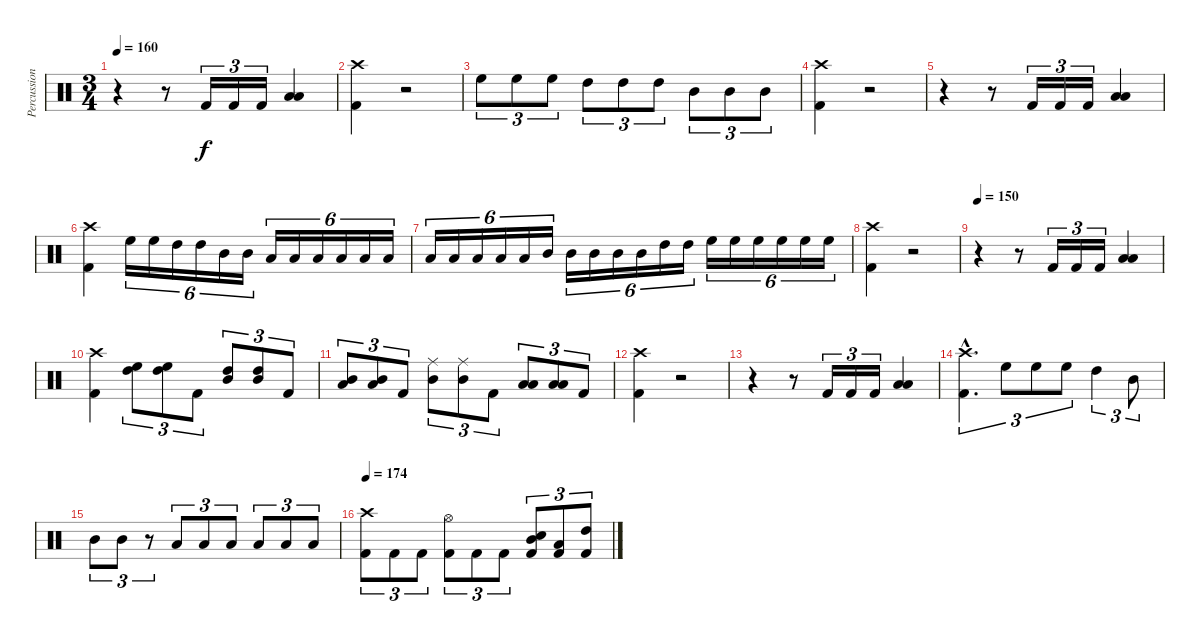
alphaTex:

\track ("Percussion" "Percussion") {instrument percussion}
\staff {score}
\articulation defaults
\ts (3 4)
\tempo 160
\clef neutral
\ks c
r.4{dy f} r.8 "Kick (hit) 2".16{tu (3 2)} "Kick (hit) 2".16{tu (3 2)} "Kick (hit) 2".16{tu (3 2)} ("Low Tom (hit)" "Low Floor Tom (hit)").4 |
("Crash high (hit)" "Kick (hit) 2").4 r.2 |
"High Floor Tom (hit)".8{tu (3 2)} "High Floor Tom (hit)".8{tu (3 2)} "High Floor Tom (hit)".8{tu (3 2)} "High Tom (hit)".8{tu (3 2)} "High Tom (hit)".8{tu (3 2)} "High Tom (hit)".8{tu (3 2)} "Mid Tom (hit)".8{tu (3 2)} "Mid Tom (hit)".8{tu (3 2)} "Mid Tom (hit)".8{tu (3 2)} |
("Crash high (hit)" "Kick (hit) 2").4 r.2 |
r.4 r.8 "Kick (hit) 2".16{tu (3 2)} "Kick (hit) 2".16{tu (3 2)} "Kick (hit) 2".16{tu (3 2)} ("Low Tom (hit)" "Low Floor Tom (hit)").4 |
("Crash high (hit)" "Kick (hit) 2").4 "High Floor Tom (hit)".16{tu (6 4)} "High Floor Tom (hit)".16{tu (6 4)} "High Tom (hit)".16{tu (6 4)} "High Tom (hit)".16{tu (6 4)} "Mid Tom (hit)".16{tu (6 4)} "Mid Tom (hit)".16{tu (6 4)} "Low Tom (hit)".16{tu (6 4)} "Low Tom (hit)".16{tu (6 4)} "Low Floor Tom (hit)".16{tu (6 4)} "Low Floor Tom (hit)".16{tu (6 4)} "Low Floor Tom (hit)".16{tu (6 4)} "Low Floor Tom (hit)".16{tu (6 4)} |
"Low Floor Tom (hit)".16{tu (6 4)} "Low Floor Tom (hit)".16{tu (6 4)} "Low Floor Tom (hit)".16{tu (6 4)} "Low Tom (hit)".16{tu (6 4)} "Low Tom (hit)".16{tu (6 4)} "Mid Tom (hit)".16{tu (6 4)} "Mid Tom (hit)".16{tu (6 4)} "Mid Tom (hit)".16{tu (6 4)} "Mid Tom (hit)".16{tu (6 4)} "Mid Tom (hit)".16{tu (6 4)} "High Tom (hit)".16{tu (6 4)} "High Tom (hit)".16{tu (6 4)} "High Floor Tom (hit)".16{tu (6 4)} "High Floor Tom (hit)".16{tu (6 4)} "High Floor Tom (hit)".16{tu (6 4)} "High Floor Tom (hit)".16{tu (6 4)} "High Floor Tom (hit)".16{tu (6 4)} "High Floor Tom (hit)".16{tu (6 4)} |
("Crash high (hit)" "Kick (hit) 2").4 r.2 |
\tempo 150
r.4 r.8 "Kick (hit) 2".16{tu (3 2)} "Kick (hit) 2".16{tu (3 2)} "Kick (hit) 2".16{tu (3 2)} ("Low Tom (hit)" "Low Floor Tom (hit)").4 |
("Crash high (hit)" "Kick (hit) 2").4 ("High Floor Tom (hit)" "High Tom (hit)").8{tu (3 2)} ("High Floor Tom (hit)" "High Tom (hit)").8{tu (3 2)} "Kick (hit) 2".8{tu (3 2)} ("High Tom (hit)" "Mid Tom (hit)").8{tu (3 2)} ("High Tom (hit)" "Mid Tom (hit)").8{tu (3 2)} "Kick (hit) 2".8{tu (3 2)} |
("Mid Tom (hit)" "Low Tom (hit)").8{tu (3 2)} ("Mid Tom (hit)" "Low Tom (hit)").8{tu (3 2)} "Kick (hit) 2".8{tu (3 2)} ("Ride (middle)" "Mid Tom (hit)").8{tu (3 2)} ("Ride (middle)" "Mid Tom (hit)").8{tu (3 2)} "Kick (hit) 2".8{tu (3 2)} ("Low Tom (hit)" "Low Floor Tom (hit)").8{tu (3 2)} ("Low Tom (hit)" "Low Floor Tom (hit)").8{tu (3 2)} "Kick (hit) 2".8{tu (3 2)} |
("Crash high (hit)" "Kick (hit) 2").4 r.2 |
r.4 r.8 "Kick (hit) 2".16{tu (3 2)} "Kick (hit) 2".16{tu (3 2)} "Kick (hit) 2".16{tu (3 2)} ("Low Tom (hit)" "Low Floor Tom (hit)").4 |
("Crash high (hit)"{hac} "Kick (hit) 2"{hac}).4{d tu (3 2)} "High Floor Tom (hit)".8{tu (3 2)} "High Floor Tom (hit)".8{tu (3 2)} "High Floor Tom (hit)".8{tu (3 2)} "High Tom (hit)".4{tu (3 2)} "Mid Tom (hit)".8{tu (3 2)} |
"Mid Tom (hit)".8{tu (3 2)} "Mid Tom (hit)".8{tu (3 2)} r.8{tu (3 2)} "Low Tom (hit)".8{tu (3 2)} "Low Tom (hit)".8{tu (3 2)} "Low Tom (hit)".8{tu (3 2)} "Low Floor Tom (hit)".8{tu (3 2)} "Low Floor Tom (hit)".8{tu (3 2)} "Low Floor Tom (hit)".8{tu (3 2)} |
\tempo 174
("Crash high (hit)" "Kick (hit) 2").8{tu (3 2)} "Kick (hit) 2".8{tu (3 2)} "Kick (hit) 2".8{tu (3 2)} ("Hi-Hat (open)" "Kick (hit) 2").8{tu (3 2)} "Kick (hit) 2".8{tu (3 2)} "Kick (hit) 2".8{tu (3 2)} ("Mid Tom (hit)" "Electric Snare (hit)" "Kick (hit) 2").8{tu (3 2)} ("Low Tom (hit)" "Kick (hit) 2").8{tu (3 2)} ("High Tom (hit)" "Kick (hit) 2").8{tu (3 2)}
